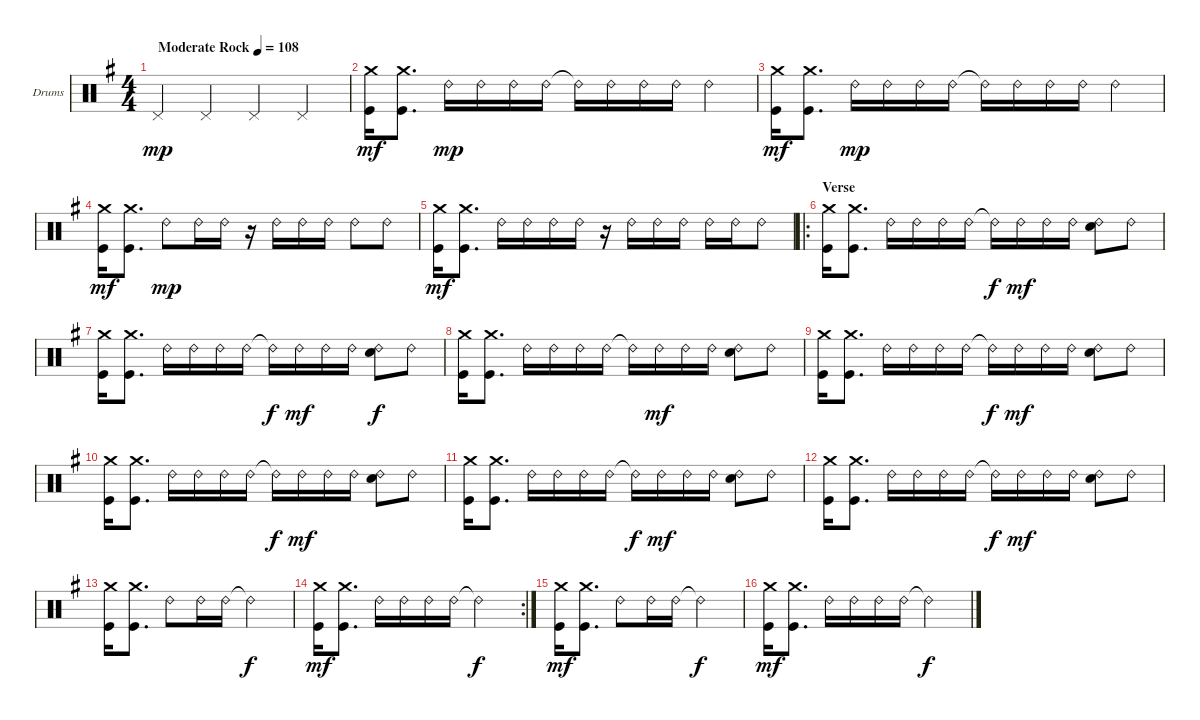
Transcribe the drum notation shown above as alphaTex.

\defaultSystemsLayout 4
\bracketExtendMode groupsimilarinstruments
\firstSystemTrackNameOrientation horizontal
\otherSystemsTrackNameOrientation horizontal
\track ("Drumkit" "Drums") {instrument percussion}
\staff {score}
\articulation defaults
\ts (4 4)
\tempo (108 "Moderate Rock")
\clef neutral
\scale
1.07314
\ks g "Pedal Hi-Hat (hit)".4{dy mp} "Pedal Hi-Hat (hit)".4 "Pedal Hi-Hat (hit)".4 "Pedal Hi-Hat (hit)".4
|
\scale
0.92686 ("Crash medium (hit)" "Kick (hit)").16{dy mf} ("Crash medium (hit)" "Kick (hit)").8{d} "Ride (bell) 2".16{dy mp} "Ride (bell) 2".16 "Ride (bell) 2".16 "Ride (bell) 2".16 "Ride (bell) 2"{t}.16 "Ride (bell) 2".16 "Ride (bell) 2".16 "Ride (bell) 2".16 "Ride (bell) 2".4 |
\scale
1.04288 ("Crash medium (hit)" "Kick (hit)").16{dy mf} ("Crash medium (hit)" "Kick (hit)").8{d} "Ride (bell) 2".16{dy mp} "Ride (bell) 2".16 "Ride (bell) 2".16 "Ride (bell) 2".16 "Ride (bell) 2"{t}.16 "Ride (bell) 2".16 "Ride (bell) 2".16 "Ride (bell) 2".16 "Ride (bell) 2".4 |
\scale
0.957125 ("Crash medium (hit)" "Kick (hit)").16{dy mf} ("Crash medium (hit)" "Kick (hit)").8{d} "Ride (bell) 2".8{dy mp} "Ride (bell) 2".16 "Ride (bell) 2".16 r.16 "Ride (bell) 2".16 "Ride (bell) 2".16 "Ride (bell) 2".16 "Ride (bell) 2".8 "Ride (bell) 2".8 |
\scale
1.04288 ("Crash medium (hit)" "Kick (hit)").16{dy mf} ("Crash medium (hit)" "Kick (hit)").8{d} "Ride (bell) 2".16 "Ride (bell) 2".16 "Ride (bell) 2".16 "Ride (bell) 2".16 r.16 "Ride (bell) 2".16 "Ride (bell) 2".16 "Ride (bell) 2".16 "Ride (bell) 2".16 "Ride (bell) 2".16 "Ride (bell) 2".8 |
\ro
\section ("" "Verse")
\scale
0.957125 ("Crash medium (hit)" "Kick (hit)").16 ("Crash medium (hit)" "Kick (hit)").8{d} "Ride (bell) 2".16 "Ride (bell) 2".16 "Ride (bell) 2".16 "Ride (bell) 2".16 "Ride (bell) 2"{t}.16{dy f} "Ride (bell) 2".16{dy mf} "Ride (bell) 2".16 "Ride (bell) 2".16 ("Ride (bell) 2" "Snare (hit) 2").8 "Ride (bell) 2".8 |
\scale
1.04288 ("Crash medium (hit)" "Kick (hit)").16 ("Crash medium (hit)" "Kick (hit)").8{d} "Ride (bell) 2".16 "Ride (bell) 2".16 "Ride (bell) 2".16 "Ride (bell) 2".16 "Ride (bell) 2"{t}.16{dy f} "Ride (bell) 2".16{dy mf} "Ride (bell) 2".16 "Ride (bell) 2".16 ("Ride (bell) 2" "Snare (hit) 2").8{dy f} "Ride (bell) 2".8 |
\scale
0.957125 ("Crash medium (hit)" "Kick (hit)").16 ("Crash medium (hit)" "Kick (hit)").8{d} "Ride (bell) 2".16 "Ride (bell) 2".16 "Ride (bell) 2".16 "Ride (bell) 2".16 "Ride (bell) 2"{t}.16 "Ride (bell) 2".16{dy mf} "Ride (bell) 2".16 "Ride (bell) 2".16 ("Ride (bell) 2" "Snare (hit) 2").8 "Ride (bell) 2".8 |
\scale
1.04288 ("Crash medium (hit)" "Kick (hit)").16 ("Crash medium (hit)" "Kick (hit)").8{d} "Ride (bell) 2".16 "Ride (bell) 2".16 "Ride (bell) 2".16 "Ride (bell) 2".16 "Ride (bell) 2"{t}.16{dy f} "Ride (bell) 2".16{dy mf} "Ride (bell) 2".16 "Ride (bell) 2".16 ("Ride (bell) 2" "Snare (hit) 2").8 "Ride (bell) 2".8 |
\scale
0.957125 ("Crash medium (hit)" "Kick (hit)").16 ("Crash medium (hit)" "Kick (hit)").8{d} "Ride (bell) 2".16 "Ride (bell) 2".16 "Ride (bell) 2".16 "Ride (bell) 2".16 "Ride (bell) 2"{t}.16{dy f} "Ride (bell) 2".16{dy mf} "Ride (bell) 2".16 "Ride (bell) 2".16 ("Ride (bell) 2" "Snare (hit) 2").8 "Ride (bell) 2".8 |
\scale
1.04288 ("Crash medium (hit)" "Kick (hit)").16 ("Crash medium (hit)" "Kick (hit)").8{d} "Ride (bell) 2".16 "Ride (bell) 2".16 "Ride (bell) 2".16 "Ride (bell) 2".16 "Ride (bell) 2"{t}.16{dy f} "Ride (bell) 2".16{dy mf} "Ride (bell) 2".16 "Ride (bell) 2".16 ("Ride (bell) 2" "Snare (hit) 2").8 "Ride (bell) 2".8 |
\scale
0.957125 ("Crash medium (hit)" "Kick (hit)").16 ("Crash medium (hit)" "Kick (hit)").8{d} "Ride (bell) 2".16 "Ride (bell) 2".16 "Ride (bell) 2".16 "Ride (bell) 2".16 "Ride (bell) 2"{t}.16{dy f} "Ride (bell) 2".16{dy mf} "Ride (bell) 2".16 "Ride (bell) 2".16 ("Ride (bell) 2" "Snare (hit) 2").8 "Ride (bell) 2".8 |
\scale
1.04288 ("Crash medium (hit)" "Kick (hit)").16 ("Crash medium (hit)" "Kick (hit)").8{d} "Ride (bell) 2".8 "Ride (bell) 2".16 "Ride (bell) 2".16 "Ride (bell) 2"{t}.2{dy f} |
\rc 2
\scale
0.957125 ("Crash medium (hit)" "Kick (hit)").16{dy mf} ("Crash medium (hit)" "Kick (hit)").8{d} "Ride (bell) 2".16 "Ride (bell) 2".16 "Ride (bell) 2".16 "Ride (bell) 2".16 "Ride (bell) 2"{t}.2{dy f} |
\scale
1.04288 ("Crash medium (hit)" "Kick (hit)").16{dy mf} ("Crash medium (hit)" "Kick (hit)").8{d} "Ride (bell) 2".8 "Ride (bell) 2".16 "Ride (bell) 2".16 "Ride (bell) 2"{t}.2{dy f} |
\scale
0.957125 ("Crash medium (hit)" "Kick (hit)").16{dy mf} ("Crash medium (hit)" "Kick (hit)").8{d} "Ride (bell) 2".16 "Ride (bell) 2".16 "Ride (bell) 2".16 "Ride (bell) 2".16 "Ride (bell) 2"{t}.2{dy f}
